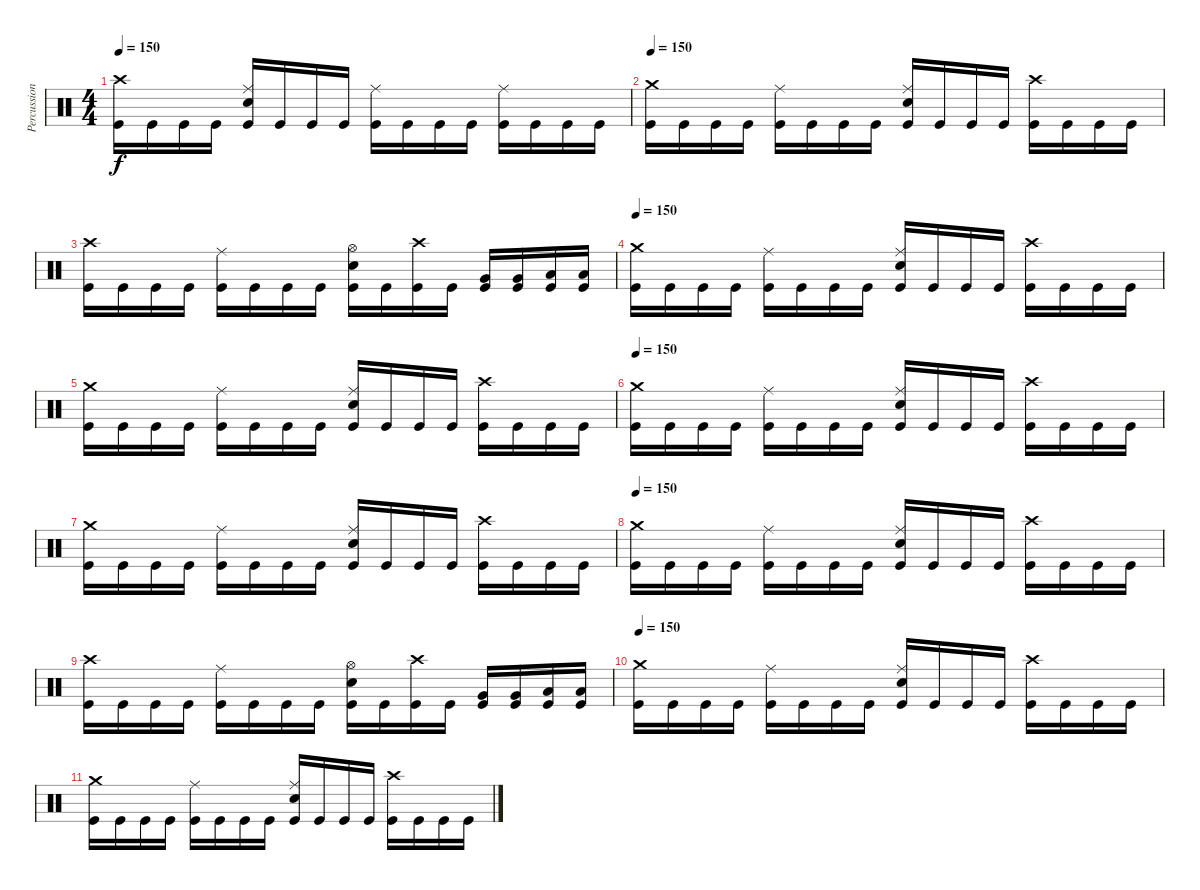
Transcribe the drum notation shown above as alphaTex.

\track ("Percussion" "Percussion") {instrument percussion}
\staff {score}
\articulation defaults
\ts (4 4)
\tempo 150
\clef neutral
\ks c
("Crash high (hit)" "Kick (hit)").16{dy f} "Kick (hit)".16 "Kick (hit)".16 "Kick (hit)".16 ("Ride (middle)" "Electric Snare (hit)" "Kick (hit)").16 "Kick (hit)".16 "Kick (hit)".16 "Kick (hit)".16 ("Ride (middle)" "Kick (hit)").16 "Kick (hit)".16 "Kick (hit)".16 "Kick (hit)".16 ("Ride (middle)" "Kick (hit)").16 "Kick (hit)".16 "Kick (hit)".16 "Kick (hit)".16 |
\tempo 150
("Crash medium (hit)" "Kick (hit)").16 "Kick (hit)".16 "Kick (hit)".16 "Kick (hit)".16 ("Ride (middle)" "Kick (hit)").16 "Kick (hit)".16 "Kick (hit)".16 "Kick (hit)".16 ("Ride (middle)" "Electric Snare (hit)" "Kick (hit)").16 "Kick (hit)".16 "Kick (hit)".16 "Kick (hit)".16 ("Crash high (hit)" "Kick (hit)").16 "Kick (hit)".16 "Kick (hit)".16 "Kick (hit)".16 |
("Crash high (hit)" "Kick (hit)").16 "Kick (hit)".16 "Kick (hit)".16 "Kick (hit)".16 ("Ride (middle)" "Kick (hit)").16 "Kick (hit)".16 "Kick (hit)".16 "Kick (hit)".16 ("Hi-Hat (open)" "Electric Snare (hit)" "Kick (hit)").16 "Kick (hit)".16 ("Crash high (hit)" "Kick (hit)").16 "Kick (hit)".16 ("Very Low Tom (hit)" "Kick (hit)").16 ("Very Low Tom (hit)" "Kick (hit)").16 ("Low Floor Tom (hit)" "Kick (hit)").16 ("Low Floor Tom (hit)" "Kick (hit)").16 |
\tempo 150
("Crash medium (hit)" "Kick (hit)").16 "Kick (hit)".16 "Kick (hit)".16 "Kick (hit)".16 ("Ride (middle)" "Kick (hit)").16 "Kick (hit)".16 "Kick (hit)".16 "Kick (hit)".16 ("Ride (middle)" "Electric Snare (hit)" "Kick (hit)").16 "Kick (hit)".16 "Kick (hit)".16 "Kick (hit)".16 ("Crash high (hit)" "Kick (hit)").16 "Kick (hit)".16 "Kick (hit)".16 "Kick (hit)".16 |
("Crash medium (hit)" "Kick (hit)").16 "Kick (hit)".16 "Kick (hit)".16 "Kick (hit)".16 ("Ride (middle)" "Kick (hit)").16 "Kick (hit)".16 "Kick (hit)".16 "Kick (hit)".16 ("Ride (middle)" "Electric Snare (hit)" "Kick (hit)").16 "Kick (hit)".16 "Kick (hit)".16 "Kick (hit)".16 ("Crash high (hit)" "Kick (hit)").16 "Kick (hit)".16 "Kick (hit)".16 "Kick (hit)".16 |
\tempo 150
("Crash medium (hit)" "Kick (hit)").16 "Kick (hit)".16 "Kick (hit)".16 "Kick (hit)".16 ("Ride (middle)" "Kick (hit)").16 "Kick (hit)".16 "Kick (hit)".16 "Kick (hit)".16 ("Ride (middle)" "Electric Snare (hit)" "Kick (hit)").16 "Kick (hit)".16 "Kick (hit)".16 "Kick (hit)".16 ("Crash high (hit)" "Kick (hit)").16 "Kick (hit)".16 "Kick (hit)".16 "Kick (hit)".16 |
("Crash medium (hit)" "Kick (hit)").16 "Kick (hit)".16 "Kick (hit)".16 "Kick (hit)".16 ("Ride (middle)" "Kick (hit)").16 "Kick (hit)".16 "Kick (hit)".16 "Kick (hit)".16 ("Ride (middle)" "Electric Snare (hit)" "Kick (hit)").16 "Kick (hit)".16 "Kick (hit)".16 "Kick (hit)".16 ("Crash high (hit)" "Kick (hit)").16 "Kick (hit)".16 "Kick (hit)".16 "Kick (hit)".16 |
\tempo 150
("Crash medium (hit)" "Kick (hit)").16 "Kick (hit)".16 "Kick (hit)".16 "Kick (hit)".16 ("Ride (middle)" "Kick (hit)").16 "Kick (hit)".16 "Kick (hit)".16 "Kick (hit)".16 ("Ride (middle)" "Electric Snare (hit)" "Kick (hit)").16 "Kick (hit)".16 "Kick (hit)".16 "Kick (hit)".16 ("Crash high (hit)" "Kick (hit)").16 "Kick (hit)".16 "Kick (hit)".16 "Kick (hit)".16 |
("Crash high (hit)" "Kick (hit)").16 "Kick (hit)".16 "Kick (hit)".16 "Kick (hit)".16 ("Ride (middle)" "Kick (hit)").16 "Kick (hit)".16 "Kick (hit)".16 "Kick (hit)".16 ("Hi-Hat (open)" "Electric Snare (hit)" "Kick (hit)").16 "Kick (hit)".16 ("Crash high (hit)" "Kick (hit)").16 "Kick (hit)".16 ("Very Low Tom (hit)" "Kick (hit)").16 ("Very Low Tom (hit)" "Kick (hit)").16 ("Low Floor Tom (hit)" "Kick (hit)").16 ("Low Floor Tom (hit)" "Kick (hit)").16 |
\tempo 150
("Crash medium (hit)" "Kick (hit)").16 "Kick (hit)".16 "Kick (hit)".16 "Kick (hit)".16 ("Ride (middle)" "Kick (hit)").16 "Kick (hit)".16 "Kick (hit)".16 "Kick (hit)".16 ("Ride (middle)" "Electric Snare (hit)" "Kick (hit)").16 "Kick (hit)".16 "Kick (hit)".16 "Kick (hit)".16 ("Crash high (hit)" "Kick (hit)").16 "Kick (hit)".16 "Kick (hit)".16 "Kick (hit)".16 |
("Crash medium (hit)" "Kick (hit)").16 "Kick (hit)".16 "Kick (hit)".16 "Kick (hit)".16 ("Ride (middle)" "Kick (hit)").16 "Kick (hit)".16 "Kick (hit)".16 "Kick (hit)".16 ("Ride (middle)" "Electric Snare (hit)" "Kick (hit)").16 "Kick (hit)".16 "Kick (hit)".16 "Kick (hit)".16 ("Crash high (hit)" "Kick (hit)").16 "Kick (hit)".16 "Kick (hit)".16 "Kick (hit)".16
